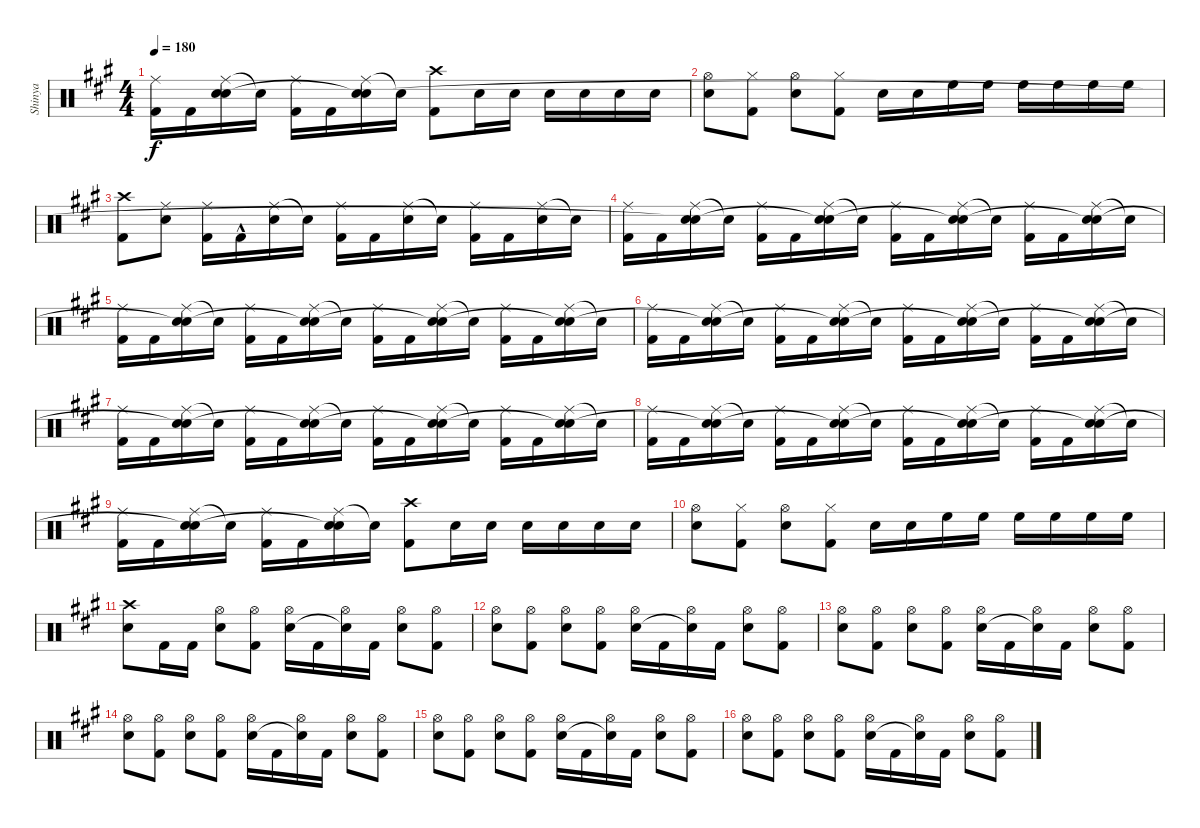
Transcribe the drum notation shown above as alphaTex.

\track ("Shinya" "Shinya") {instrument percussion}
\staff {score}
\articulation defaults
\ts (4 4)
\tempo 180
\clef neutral
\ks a
("Ride (middle)" "Kick (hit) 2").16{dy f} "Kick (hit) 2".16 ("Ride (middle)" "Electric Snare (hit)" "Snare (hit)"{t}).16 "Snare (hit)"{t}.16 ("Ride (middle)" "Kick (hit) 2").16 "Kick (hit) 2".16 ("Ride (middle)" "Electric Snare (hit)" "Snare (hit)"{t}).16 "Snare (hit)"{t}.16 ("Crash high (hit)" "Kick (hit) 2").8 "Electric Snare (hit)".16 "Electric Snare (hit)".16 "Electric Snare (hit)".16 "Electric Snare (hit)".16 "Electric Snare (hit)".16 "Electric Snare (hit)".16 |
("Hi-Hat (open)" "Electric Snare (hit)").8 ("Hi-Hat (closed)" "Kick (hit) 2").8 ("Hi-Hat (open)" "Electric Snare (hit)").8 ("Hi-Hat (closed)" "Kick (hit) 2").8 "Electric Snare (hit)".16 "Electric Snare (hit)".16 "High Floor Tom (hit)".16 "High Floor Tom (hit)".16 "High Floor Tom (hit)".16 "High Floor Tom (hit)".16 "High Floor Tom (hit)".16 "High Floor Tom (hit)".16 |
("Crash high (hit)" "Kick (hit) 2").8 ("Ride (middle)" "Electric Snare (hit)").8 ("Ride (middle)" "Kick (hit) 2").16 "Kick (hit) 2"{hac}.16 ("Ride (middle)" "Electric Snare (hit)").16 "Snare (hit)"{t}.16 ("Ride (middle)" "Kick (hit) 2").16 "Kick (hit) 2".16 ("Ride (middle)" "Electric Snare (hit)").16 "Snare (hit)"{t}.16 ("Ride (middle)" "Kick (hit) 2").16 "Kick (hit) 2".16 ("Ride (middle)" "Electric Snare (hit)").16 "Snare (hit)"{t}.16 |
("Ride (middle)" "Kick (hit) 2").16 "Kick (hit) 2".16 ("Ride (middle)" "Electric Snare (hit)" "Snare (hit)"{t}).16 "Snare (hit)"{t}.16 ("Ride (middle)" "Kick (hit) 2").16 "Kick (hit) 2".16 ("Ride (middle)" "Electric Snare (hit)" "Snare (hit)"{t}).16 "Snare (hit)"{t}.16 ("Ride (middle)" "Kick (hit) 2").16 "Kick (hit) 2".16 ("Ride (middle)" "Electric Snare (hit)" "Snare (hit)"{t}).16 "Snare (hit)"{t}.16 ("Ride (middle)" "Kick (hit) 2").16 "Kick (hit) 2".16 ("Ride (middle)" "Electric Snare (hit)" "Snare (hit)"{t}).16 "Snare (hit)"{t}.16 |
("Ride (middle)" "Kick (hit) 2").16 "Kick (hit) 2".16 ("Ride (middle)" "Electric Snare (hit)" "Snare (hit)"{t}).16 "Snare (hit)"{t}.16 ("Ride (middle)" "Kick (hit) 2").16 "Kick (hit) 2".16 ("Ride (middle)" "Electric Snare (hit)" "Snare (hit)"{t}).16 "Snare (hit)"{t}.16 ("Ride (middle)" "Kick (hit) 2").16 "Kick (hit) 2".16 ("Ride (middle)" "Electric Snare (hit)" "Snare (hit)"{t}).16 "Snare (hit)"{t}.16 ("Ride (middle)" "Kick (hit) 2").16 "Kick (hit) 2".16 ("Ride (middle)" "Electric Snare (hit)" "Snare (hit)"{t}).16 "Snare (hit)"{t}.16 |
("Ride (middle)" "Kick (hit) 2").16 "Kick (hit) 2".16 ("Ride (middle)" "Electric Snare (hit)" "Snare (hit)"{t}).16 "Snare (hit)"{t}.16 ("Ride (middle)" "Kick (hit) 2").16 "Kick (hit) 2".16 ("Ride (middle)" "Electric Snare (hit)" "Snare (hit)"{t}).16 "Snare (hit)"{t}.16 ("Ride (middle)" "Kick (hit) 2").16 "Kick (hit) 2".16 ("Ride (middle)" "Electric Snare (hit)" "Snare (hit)"{t}).16 "Snare (hit)"{t}.16 ("Ride (middle)" "Kick (hit) 2").16 "Kick (hit) 2".16 ("Ride (middle)" "Electric Snare (hit)" "Snare (hit)"{t}).16 "Snare (hit)"{t}.16 |
("Ride (middle)" "Kick (hit) 2").16 "Kick (hit) 2".16 ("Ride (middle)" "Electric Snare (hit)" "Snare (hit)"{t}).16 "Snare (hit)"{t}.16 ("Ride (middle)" "Kick (hit) 2").16 "Kick (hit) 2".16 ("Ride (middle)" "Electric Snare (hit)" "Snare (hit)"{t}).16 "Snare (hit)"{t}.16 ("Ride (middle)" "Kick (hit) 2").16 "Kick (hit) 2".16 ("Ride (middle)" "Electric Snare (hit)" "Snare (hit)"{t}).16 "Snare (hit)"{t}.16 ("Ride (middle)" "Kick (hit) 2").16 "Kick (hit) 2".16 ("Ride (middle)" "Electric Snare (hit)" "Snare (hit)"{t}).16 "Snare (hit)"{t}.16 |
("Ride (middle)" "Kick (hit) 2").16 "Kick (hit) 2".16 ("Ride (middle)" "Electric Snare (hit)" "Snare (hit)"{t}).16 "Snare (hit)"{t}.16 ("Ride (middle)" "Kick (hit) 2").16 "Kick (hit) 2".16 ("Ride (middle)" "Electric Snare (hit)" "Snare (hit)"{t}).16 "Snare (hit)"{t}.16 ("Ride (middle)" "Kick (hit) 2").16 "Kick (hit) 2".16 ("Ride (middle)" "Electric Snare (hit)" "Snare (hit)"{t}).16 "Snare (hit)"{t}.16 ("Ride (middle)" "Kick (hit) 2").16 "Kick (hit) 2".16 ("Ride (middle)" "Electric Snare (hit)" "Snare (hit)"{t}).16 "Snare (hit)"{t}.16 |
("Ride (middle)" "Kick (hit) 2").16 "Kick (hit) 2".16 ("Ride (middle)" "Electric Snare (hit)" "Snare (hit)"{t}).16 "Snare (hit)"{t}.16 ("Ride (middle)" "Kick (hit) 2").16 "Kick (hit) 2".16 ("Ride (middle)" "Electric Snare (hit)" "Snare (hit)"{t}).16 "Snare (hit)"{t}.16 ("Crash high (hit)" "Kick (hit) 2").8 "Electric Snare (hit)".16 "Electric Snare (hit)".16 "Electric Snare (hit)".16 "Electric Snare (hit)".16 "Electric Snare (hit)".16 "Electric Snare (hit)".16 |
("Hi-Hat (open)" "Electric Snare (hit)").8 ("Hi-Hat (closed)" "Kick (hit) 2").8 ("Hi-Hat (open)" "Electric Snare (hit)").8 ("Hi-Hat (closed)" "Kick (hit) 2").8 "Electric Snare (hit)".16 "Electric Snare (hit)".16 "High Floor Tom (hit)".16 "High Floor Tom (hit)".16 "High Floor Tom (hit)".16 "High Floor Tom (hit)".16 "High Floor Tom (hit)".16 "High Floor Tom (hit)".16 |
("Crash high (hit)" "Electric Snare (hit)").8 "Kick (hit) 2".16 "Kick (hit) 2".16 ("Hi-Hat (open)" "Electric Snare (hit)").8 ("Hi-Hat (open)" "Kick (hit) 2").8 ("Hi-Hat (open)" "Electric Snare (hit)").16 "Kick (hit) 2".16 ("Hi-Hat (open)" "Snare (hit)"{t}).16 "Kick (hit) 2".16 ("Hi-Hat (open)" "Electric Snare (hit)").8 ("Hi-Hat (open)" "Kick (hit) 2").8 |
("Hi-Hat (open)" "Electric Snare (hit)").8 ("Hi-Hat (open)" "Kick (hit) 2").8 ("Hi-Hat (open)" "Electric Snare (hit)").8 ("Hi-Hat (open)" "Kick (hit) 2").8 ("Hi-Hat (open)" "Electric Snare (hit)").16 "Kick (hit) 2".16 ("Hi-Hat (open)" "Snare (hit)"{t}).16 "Kick (hit) 2".16 ("Hi-Hat (open)" "Electric Snare (hit)").8 ("Hi-Hat (open)" "Kick (hit) 2").8 |
("Hi-Hat (open)" "Electric Snare (hit)").8 ("Hi-Hat (open)" "Kick (hit) 2").8 ("Hi-Hat (open)" "Electric Snare (hit)").8 ("Hi-Hat (open)" "Kick (hit) 2").8 ("Hi-Hat (open)" "Electric Snare (hit)").16 "Kick (hit) 2".16 ("Hi-Hat (open)" "Snare (hit)"{t}).16 "Kick (hit) 2".16 ("Hi-Hat (open)" "Electric Snare (hit)").8 ("Hi-Hat (open)" "Kick (hit) 2").8 |
("Hi-Hat (open)" "Electric Snare (hit)").8 ("Hi-Hat (open)" "Kick (hit) 2").8 ("Hi-Hat (open)" "Electric Snare (hit)").8 ("Hi-Hat (open)" "Kick (hit) 2").8 ("Hi-Hat (open)" "Electric Snare (hit)").16 "Kick (hit) 2".16 ("Hi-Hat (open)" "Snare (hit)"{t}).16 "Kick (hit) 2".16 ("Hi-Hat (open)" "Electric Snare (hit)").8 ("Hi-Hat (open)" "Kick (hit) 2").8 |
("Hi-Hat (open)" "Electric Snare (hit)").8 ("Hi-Hat (open)" "Kick (hit) 2").8 ("Hi-Hat (open)" "Electric Snare (hit)").8 ("Hi-Hat (open)" "Kick (hit) 2").8 ("Hi-Hat (open)" "Electric Snare (hit)").16 "Kick (hit) 2".16 ("Hi-Hat (open)" "Snare (hit)"{t}).16 "Kick (hit) 2".16 ("Hi-Hat (open)" "Electric Snare (hit)").8 ("Hi-Hat (open)" "Kick (hit) 2").8 |
("Hi-Hat (open)" "Electric Snare (hit)").8 ("Hi-Hat (open)" "Kick (hit) 2").8 ("Hi-Hat (open)" "Electric Snare (hit)").8 ("Hi-Hat (open)" "Kick (hit) 2").8 ("Hi-Hat (open)" "Electric Snare (hit)").16 "Kick (hit) 2".16 ("Hi-Hat (open)" "Snare (hit)"{t}).16 "Kick (hit) 2".16 ("Hi-Hat (open)" "Electric Snare (hit)").8 ("Hi-Hat (open)" "Kick (hit) 2").8
